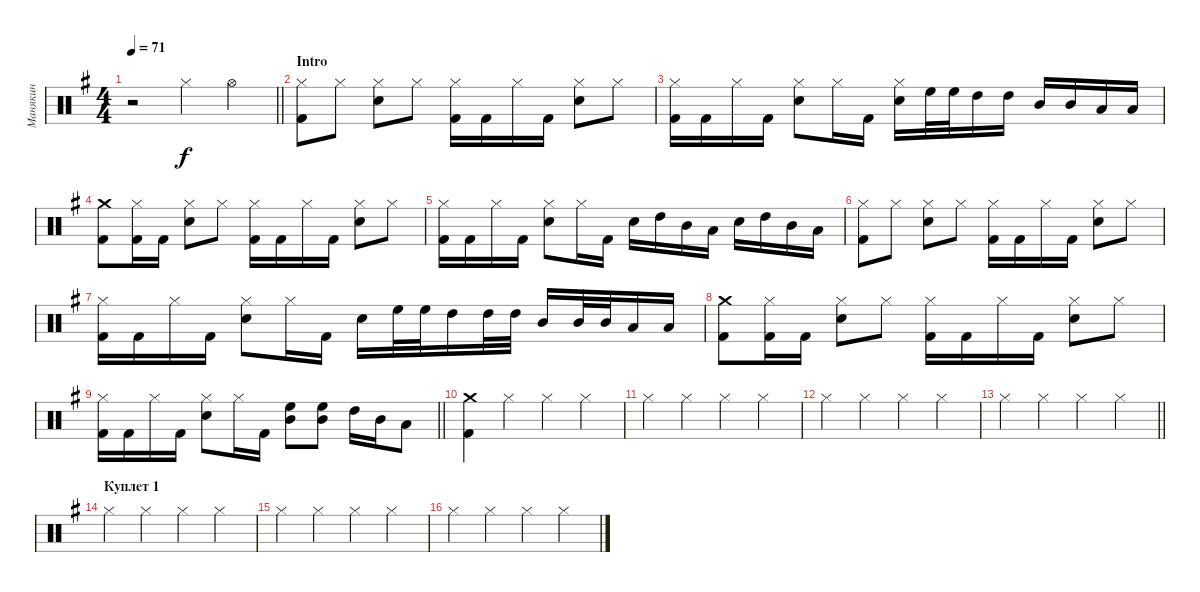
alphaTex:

\track ("Манякин" "Манякин") {instrument percussion}
\staff {score}
\articulation defaults
\ts (4 4)
\tempo 71
\clef neutral
\barLineRight lightlight
\ks eminor
r.2{dy f} "Hi-Hat (closed)".4 "Hi-Hat (open)".4 |
\section ("" "Intro")
("Hi-Hat (closed)" "Kick (hit) 2").8 "Hi-Hat (closed)".8 ("Hi-Hat (closed)" "Snare (hit) 2").8 "Hi-Hat (closed)".8 ("Hi-Hat (closed)" "Kick (hit) 2").16 "Kick (hit) 2".16 "Hi-Hat (closed)".16 "Kick (hit) 2".16 ("Hi-Hat (closed)" "Snare (hit) 2").8 "Hi-Hat (closed)".8 |
("Hi-Hat (closed)" "Kick (hit) 2").16 "Kick (hit) 2".16 "Hi-Hat (closed)".16 "Kick (hit) 2".16 ("Hi-Hat (closed)" "Snare (hit) 2").8 "Hi-Hat (closed)".16 "Kick (hit) 2".16 ("Hi-Hat (closed)" "Snare (hit) 2").16 "High Floor Tom (hit)".32 "High Floor Tom (hit)".32 "High Tom (hit)".16 "High Tom (hit)".16 "Mid Tom (hit)".16 "Mid Tom (hit)".16 "Low Tom (hit)".16 "Low Tom (hit)".16 |
("Crash medium (hit)" "Kick (hit) 2").8 ("Hi-Hat (closed)" "Kick (hit) 2").16 "Kick (hit) 2".16 ("Hi-Hat (closed)" "Snare (hit) 2").8 "Hi-Hat (closed)".8 ("Hi-Hat (closed)" "Kick (hit) 2").16 "Kick (hit) 2".16 "Hi-Hat (closed)".16 "Kick (hit) 2".16 ("Hi-Hat (closed)" "Snare (hit) 2").8 "Hi-Hat (closed)".8 |
("Hi-Hat (closed)" "Kick (hit) 2").16 "Kick (hit) 2".16 "Hi-Hat (closed)".16 "Kick (hit) 2".16 ("Hi-Hat (closed)" "Snare (hit) 2").8 "Hi-Hat (closed)".16 "Kick (hit) 2".16 "Snare (hit) 2".16 "High Tom (hit)".16 "Mid Tom (hit)".16 "Low Tom (hit)".16 "Snare (hit) 2".16 "High Tom (hit)".16 "Mid Tom (hit)".16 "Low Tom (hit)".16 |
("Hi-Hat (closed)" "Kick (hit) 2").8 "Hi-Hat (closed)".8 ("Hi-Hat (closed)" "Snare (hit) 2").8 "Hi-Hat (closed)".8 ("Hi-Hat (closed)" "Kick (hit) 2").16 "Kick (hit) 2".16 "Hi-Hat (closed)".16 "Kick (hit) 2".16 ("Hi-Hat (closed)" "Snare (hit) 2").8 "Hi-Hat (closed)".8 |
("Hi-Hat (closed)" "Kick (hit) 2").16 "Kick (hit) 2".16 "Hi-Hat (closed)".16 "Kick (hit) 2".16 ("Hi-Hat (closed)" "Snare (hit) 2").8 "Hi-Hat (closed)".16 "Kick (hit) 2".16 "Snare (hit) 2".16 "High Floor Tom (hit)".32 "High Floor Tom (hit)".32 "High Tom (hit)".16 "High Tom (hit)".32 "High Tom (hit)".32 "Mid Tom (hit)".16 "Mid Tom (hit)".32 "Mid Tom (hit)".32 "Low Tom (hit)".16 "Low Tom (hit)".16 |
("Crash medium (hit)" "Kick (hit) 2").8 ("Hi-Hat (closed)" "Kick (hit) 2").16 "Kick (hit) 2".16 ("Hi-Hat (closed)" "Snare (hit) 2").8 "Hi-Hat (closed)".8 ("Hi-Hat (closed)" "Kick (hit) 2").16 "Kick (hit) 2".16 "Hi-Hat (closed)".16 "Kick (hit) 2".16 ("Hi-Hat (closed)" "Snare (hit) 2").8 "Hi-Hat (closed)".8 |
\barLineRight lightlight
("Hi-Hat (closed)" "Kick (hit) 2").16 "Kick (hit) 2".16 "Hi-Hat (closed)".16 "Kick (hit) 2".16 ("Hi-Hat (closed)" "Snare (hit) 2").8 "Hi-Hat (closed)".16 "Kick (hit) 2".16 ("High Floor Tom (hit)" "Mid Tom (hit)").8 ("High Floor Tom (hit)" "Mid Tom (hit)").8 "High Tom (hit)".16 "Mid Tom (hit)".16 "Low Tom (hit)".8 |
("Crash medium (hit)" "Kick (hit) 2").4 "Hi-Hat (closed)".4 "Hi-Hat (closed)".4 "Hi-Hat (closed)".4 |
"Hi-Hat (closed)".4 "Hi-Hat (closed)".4 "Hi-Hat (closed)".4 "Hi-Hat (closed)".4 |
"Hi-Hat (closed)".4 "Hi-Hat (closed)".4 "Hi-Hat (closed)".4 "Hi-Hat (closed)".4 |
\barLineRight lightlight "Hi-Hat (closed)".4 "Hi-Hat (closed)".4 "Hi-Hat (closed)".4 "Hi-Hat (closed)".4
|
\section ("" "Куплет 1")
"Hi-Hat (closed)".4 "Hi-Hat (closed)".4 "Hi-Hat (closed)".4 "Hi-Hat (closed)".4 |
"Hi-Hat (closed)".4 "Hi-Hat (closed)".4 "Hi-Hat (closed)".4 "Hi-Hat (closed)".4 |
"Hi-Hat (closed)".4 "Hi-Hat (closed)".4 "Hi-Hat (closed)".4 "Hi-Hat (closed)".4
